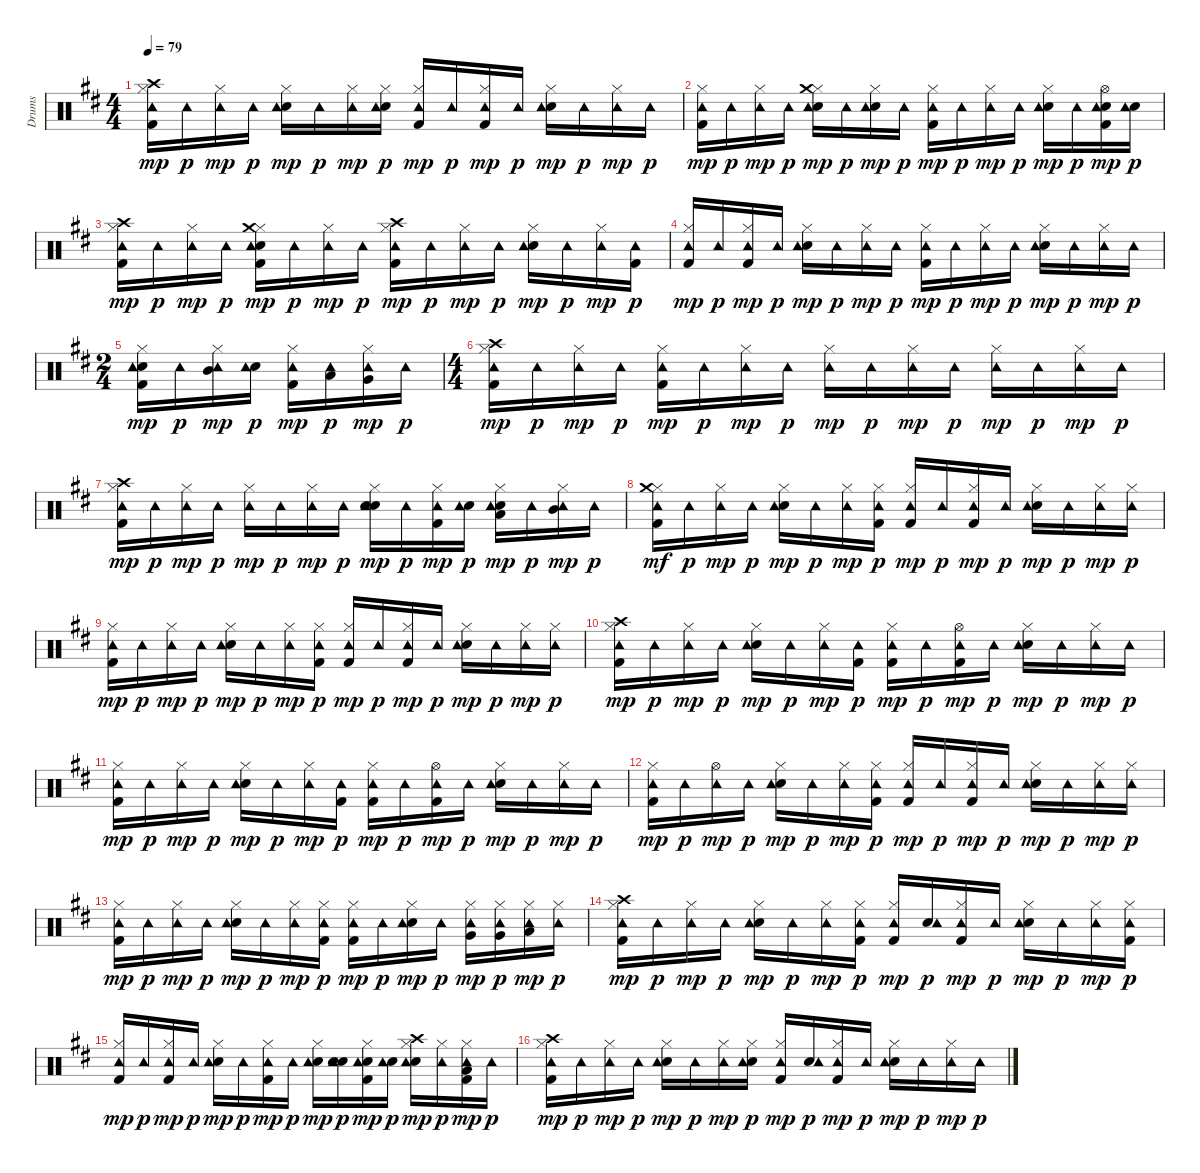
\track ("Drums" "Drums") {instrument percussion}
\staff {score}
\articulation defaults
\ts (4 4)
\tempo 79
\clef neutral
\ks d
("Kick (hit) 2" "Hi-Hat (closed)" "Crash high (hit)" "Tambourine (hit)").16{dy mp} "Tambourine (hit)".16{dy p} ("Hi-Hat (closed)" "Tambourine (hit)").16{dy mp} "Tambourine (hit)".16{dy p} ("Electric Snare (hit)" "Hi-Hat (closed)" "Tambourine (hit)").16{dy mp} "Tambourine (hit)".16{dy p} ("Hi-Hat (closed)" "Tambourine (hit)").16{dy mp} ("Electric Snare (hit)" "Hi-Hat (closed)" "Tambourine (hit)").16{dy p} ("Kick (hit) 2" "Hi-Hat (closed)" "Tambourine (hit)").16{dy mp} "Tambourine (hit)".16{dy p} ("Kick (hit) 2" "Hi-Hat (closed)" "Tambourine (hit)").16{dy mp} "Tambourine (hit)".16{dy p} ("Electric Snare (hit)" "Hi-Hat (closed)" "Tambourine (hit)").16{dy mp} "Tambourine (hit)".16{dy p} ("Hi-Hat (closed)" "Tambourine (hit)").16{dy mp} "Tambourine (hit)".16{dy p} |
("Kick (hit) 2" "Hi-Hat (closed)" "Tambourine (hit)").16{dy mp} "Tambourine (hit)".16{dy p} ("Hi-Hat (closed)" "Tambourine (hit)").16{dy mp} "Tambourine (hit)".16{dy p} ("Electric Snare (hit)" "Hi-Hat (closed)" "Tambourine (hit)" "Crash medium (hit)").16{dy mp} "Tambourine (hit)".16{dy p} ("Electric Snare (hit)" "Hi-Hat (closed)" "Tambourine (hit)").16{dy mp} "Tambourine (hit)".16{dy p} ("Kick (hit) 2" "Hi-Hat (closed)" "Tambourine (hit)").16{dy mp} "Tambourine (hit)".16{dy p} ("Hi-Hat (closed)" "Tambourine (hit)").16{dy mp} "Tambourine (hit)".16{dy p} ("Electric Snare (hit)" "Hi-Hat (closed)" "Tambourine (hit)").16{dy mp} "Tambourine (hit)".16{dy p} ("Kick (hit) 2" "Electric Snare (hit)" "Hi-Hat (open)" "Tambourine (hit)").16{dy mp} ("Electric Snare (hit)" "Tambourine (hit)").16{dy p} |
("Kick (hit) 2" "Hi-Hat (closed)" "Crash high (hit)" "Tambourine (hit)").16{dy mp} "Tambourine (hit)".16{dy p} ("Hi-Hat (closed)" "Tambourine (hit)").16{dy mp} "Tambourine (hit)".16{dy p} ("Kick (hit) 2" "Electric Snare (hit)" "Hi-Hat (closed)" "Tambourine (hit)" "Crash medium (hit)").16{dy mp} "Tambourine (hit)".16{dy p} ("Hi-Hat (closed)" "Tambourine (hit)").16{dy mp} "Tambourine (hit)".16{dy p} ("Kick (hit) 2" "Hi-Hat (closed)" "Crash high (hit)" "Tambourine (hit)").16{dy mp} "Tambourine (hit)".16{dy p} ("Hi-Hat (closed)" "Tambourine (hit)").16{dy mp} "Tambourine (hit)".16{dy p} ("Electric Snare (hit)" "Hi-Hat (closed)" "Tambourine (hit)").16{dy mp} "Tambourine (hit)".16{dy p} ("Hi-Hat (closed)" "Tambourine (hit)").16{dy mp} ("Kick (hit) 2" "Tambourine (hit)").16{dy p} |
("Kick (hit) 2" "Hi-Hat (closed)" "Tambourine (hit)").16{dy mp} "Tambourine (hit)".16{dy p} ("Kick (hit) 2" "Hi-Hat (closed)" "Tambourine (hit)").16{dy mp} "Tambourine (hit)".16{dy p} ("Electric Snare (hit)" "Hi-Hat (closed)" "Tambourine (hit)").16{dy mp} "Tambourine (hit)".16{dy p} ("Hi-Hat (closed)" "Tambourine (hit)").16{dy mp} "Tambourine (hit)".16{dy p} ("Kick (hit) 2" "Hi-Hat (closed)" "Tambourine (hit)").16{dy mp} "Tambourine (hit)".16{dy p} ("Hi-Hat (closed)" "Tambourine (hit)").16{dy mp} "Tambourine (hit)".16{dy p} ("Electric Snare (hit)" "Hi-Hat (closed)" "Tambourine (hit)").16{dy mp} "Tambourine (hit)".16{dy p} ("Hi-Hat (closed)" "Tambourine (hit)").16{dy mp} "Tambourine (hit)".16{dy p} |
\ts (2 4)
("Kick (hit) 2" "Electric Snare (hit)" "Hi-Hat (closed)" "Tambourine (hit)").16{dy mp} "Tambourine (hit)".16{dy p} ("Hi-Hat (closed)" "Mid Tom (hit)" "Tambourine (hit)").16{dy mp} ("Electric Snare (hit)" "Tambourine (hit)").16{dy p} ("Kick (hit) 2" "Hi-Hat (closed)" "Tambourine (hit)").16{dy mp} ("Low Tom (hit)" "Tambourine (hit)").16{dy p} ("Hi-Hat (closed)" "Very Low Tom (hit)" "Tambourine (hit)").16{dy mp} "Tambourine (hit)".16{dy p} |
\ts (4 4)
("Kick (hit) 2" "Hi-Hat (closed)" "Crash high (hit)" "Tambourine (hit)").16{dy mp} "Tambourine (hit)".16{dy p} ("Hi-Hat (closed)" "Tambourine (hit)").16{dy mp} "Tambourine (hit)".16{dy p} ("Kick (hit) 2" "Hi-Hat (closed)" "Tambourine (hit)").16{dy mp} "Tambourine (hit)".16{dy p} ("Hi-Hat (closed)" "Tambourine (hit)").16{dy mp} "Tambourine (hit)".16{dy p} ("Hi-Hat (closed)" "Tambourine (hit)").16{dy mp} "Tambourine (hit)".16{dy p} ("Hi-Hat (closed)" "Tambourine (hit)").16{dy mp} "Tambourine (hit)".16{dy p} ("Hi-Hat (closed)" "Tambourine (hit)").16{dy mp} "Tambourine (hit)".16{dy p} ("Hi-Hat (closed)" "Tambourine (hit)").16{dy mp} "Tambourine (hit)".16{dy p} |
("Kick (hit) 2" "Hi-Hat (closed)" "Crash high (hit)" "Tambourine (hit)").16{dy mp} "Tambourine (hit)".16{dy p} ("Hi-Hat (closed)" "Tambourine (hit)").16{dy mp} "Tambourine (hit)".16{dy p} ("Hi-Hat (closed)" "Tambourine (hit)").16{dy mp} "Tambourine (hit)".16{dy p} ("Hi-Hat (closed)" "Tambourine (hit)").16{dy mp} "Tambourine (hit)".16{dy p} ("Electric Snare (hit)" "Electric Snare (hit)" "Hi-Hat (closed)" "Tambourine (hit)").16{dy mp} "Tambourine (hit)".16{dy p} ("Kick (hit) 2" "Hi-Hat (closed)" "Tambourine (hit)").16{dy mp} ("Electric Snare (hit)" "Tambourine (hit)").16{dy p} ("Electric Snare (hit)" "Low Floor Tom (hit)" "Hi-Hat (closed)" "Tambourine (hit)").16{dy mp} "Tambourine (hit)".16{dy p} ("Hi-Hat (closed)" "Mid Tom (hit)" "Tambourine (hit)").16{dy mp} "Tambourine (hit)".16{dy p} |
("Kick (hit) 2" "Hi-Hat (closed)" "Tambourine (hit)" "Crash medium (hit)").16{dy mf} "Tambourine (hit)".16{dy p} ("Hi-Hat (closed)" "Tambourine (hit)").16{dy mp} "Tambourine (hit)".16{dy p} ("Electric Snare (hit)" "Hi-Hat (closed)" "Tambourine (hit)").16{dy mp} "Tambourine (hit)".16{dy p} ("Hi-Hat (closed)" "Tambourine (hit)").16{dy mp} ("Kick (hit) 2" "Hi-Hat (closed)" "Tambourine (hit)").16{dy p} ("Kick (hit) 2" "Hi-Hat (closed)" "Tambourine (hit)").16{dy mp} "Tambourine (hit)".16{dy p} ("Kick (hit) 2" "Hi-Hat (closed)" "Tambourine (hit)").16{dy mp} "Tambourine (hit)".16{dy p} ("Electric Snare (hit)" "Hi-Hat (closed)" "Tambourine (hit)").16{dy mp} "Tambourine (hit)".16{dy p} ("Hi-Hat (closed)" "Tambourine (hit)").16{dy mp} ("Hi-Hat (closed)" "Tambourine (hit)").16{dy p} |
("Kick (hit) 2" "Hi-Hat (closed)" "Tambourine (hit)").16{dy mp} "Tambourine (hit)".16{dy p} ("Hi-Hat (closed)" "Tambourine (hit)").16{dy mp} "Tambourine (hit)".16{dy p} ("Electric Snare (hit)" "Hi-Hat (closed)" "Tambourine (hit)").16{dy mp} "Tambourine (hit)".16{dy p} ("Hi-Hat (closed)" "Tambourine (hit)").16{dy mp} ("Kick (hit) 2" "Hi-Hat (closed)" "Tambourine (hit)").16{dy p} ("Kick (hit) 2" "Hi-Hat (closed)" "Tambourine (hit)").16{dy mp} "Tambourine (hit)".16{dy p} ("Kick (hit) 2" "Hi-Hat (closed)" "Tambourine (hit)").16{dy mp} "Tambourine (hit)".16{dy p} ("Electric Snare (hit)" "Hi-Hat (closed)" "Tambourine (hit)").16{dy mp} "Tambourine (hit)".16{dy p} ("Hi-Hat (closed)" "Tambourine (hit)").16{dy mp} ("Hi-Hat (closed)" "Tambourine (hit)").16{dy p} |
("Kick (hit) 2" "Hi-Hat (closed)" "Crash high (hit)" "Tambourine (hit)").16{dy mp} "Tambourine (hit)".16{dy p} ("Hi-Hat (closed)" "Tambourine (hit)").16{dy mp} "Tambourine (hit)".16{dy p} ("Electric Snare (hit)" "Hi-Hat (closed)" "Tambourine (hit)").16{dy mp} "Tambourine (hit)".16{dy p} ("Hi-Hat (closed)" "Tambourine (hit)").16{dy mp} ("Kick (hit) 2" "Tambourine (hit)").16{dy p} ("Kick (hit) 2" "Hi-Hat (closed)" "Tambourine (hit)").16{dy mp} "Tambourine (hit)".16{dy p} ("Kick (hit) 2" "Hi-Hat (open)" "Tambourine (hit)").16{dy mp} "Tambourine (hit)".16{dy p} ("Electric Snare (hit)" "Hi-Hat (closed)" "Tambourine (hit)").16{dy mp} "Tambourine (hit)".16{dy p} ("Hi-Hat (closed)" "Tambourine (hit)").16{dy mp} "Tambourine (hit)".16{dy p} |
("Kick (hit) 2" "Hi-Hat (closed)" "Tambourine (hit)").16{dy mp} "Tambourine (hit)".16{dy p} ("Hi-Hat (closed)" "Tambourine (hit)").16{dy mp} "Tambourine (hit)".16{dy p} ("Electric Snare (hit)" "Hi-Hat (closed)" "Tambourine (hit)").16{dy mp} "Tambourine (hit)".16{dy p} ("Hi-Hat (closed)" "Tambourine (hit)").16{dy mp} ("Kick (hit) 2" "Tambourine (hit)").16{dy p} ("Kick (hit) 2" "Hi-Hat (closed)" "Tambourine (hit)").16{dy mp} "Tambourine (hit)".16{dy p} ("Kick (hit) 2" "Hi-Hat (open)" "Tambourine (hit)").16{dy mp} "Tambourine (hit)".16{dy p} ("Electric Snare (hit)" "Hi-Hat (closed)" "Tambourine (hit)").16{dy mp} "Tambourine (hit)".16{dy p} ("Hi-Hat (closed)" "Tambourine (hit)").16{dy mp} "Tambourine (hit)".16{dy p} |
("Kick (hit) 2" "Hi-Hat (closed)" "Tambourine (hit)").16{dy mp} "Tambourine (hit)".16{dy p} ("Hi-Hat (open)" "Tambourine (hit)").16{dy mp} "Tambourine (hit)".16{dy p} ("Electric Snare (hit)" "Hi-Hat (closed)" "Tambourine (hit)").16{dy mp} "Tambourine (hit)".16{dy p} ("Hi-Hat (closed)" "Tambourine (hit)").16{dy mp} ("Kick (hit) 2" "Hi-Hat (closed)" "Tambourine (hit)").16{dy p} ("Kick (hit) 2" "Hi-Hat (closed)" "Tambourine (hit)").16{dy mp} "Tambourine (hit)".16{dy p} ("Kick (hit) 2" "Hi-Hat (closed)" "Tambourine (hit)").16{dy mp} "Tambourine (hit)".16{dy p} ("Electric Snare (hit)" "Hi-Hat (closed)" "Tambourine (hit)").16{dy mp} "Tambourine (hit)".16{dy p} ("Hi-Hat (closed)" "Tambourine (hit)").16{dy mp} ("Hi-Hat (closed)" "Tambourine (hit)").16{dy p} |
("Kick (hit) 2" "Hi-Hat (closed)" "Tambourine (hit)").16{dy mp} "Tambourine (hit)".16{dy p} ("Hi-Hat (closed)" "Tambourine (hit)").16{dy mp} "Tambourine (hit)".16{dy p} ("Electric Snare (hit)" "Hi-Hat (closed)" "Tambourine (hit)").16{dy mp} "Tambourine (hit)".16{dy p} ("Hi-Hat (closed)" "Tambourine (hit)").16{dy mp} ("Kick (hit) 2" "Hi-Hat (closed)" "Tambourine (hit)").16{dy p} ("Kick (hit) 2" "Hi-Hat (closed)" "Tambourine (hit)").16{dy mp} "Tambourine (hit)".16{dy p} ("Electric Snare (hit)" "Hi-Hat (closed)" "Tambourine (hit)").16{dy mp} "Tambourine (hit)".16{dy p} ("Hi-Hat (closed)" "Very Low Tom (hit)" "Tambourine (hit)").16{dy mp} ("Hi-Hat (closed)" "Very Low Tom (hit)" "Tambourine (hit)").16{dy p} ("Low Floor Tom (hit)" "Hi-Hat (closed)" "Tambourine (hit)").16{dy mp} ("Hi-Hat (closed)" "Tambourine (hit)").16{dy p} |
("Kick (hit) 2" "Hi-Hat (closed)" "Crash high (hit)" "Tambourine (hit)").16{dy mp} "Tambourine (hit)".16{dy p} ("Hi-Hat (closed)" "Tambourine (hit)").16{dy mp} "Tambourine (hit)".16{dy p} ("Electric Snare (hit)" "Hi-Hat (closed)" "Tambourine (hit)").16{dy mp} "Tambourine (hit)".16{dy p} ("Hi-Hat (closed)" "Tambourine (hit)").16{dy mp} ("Kick (hit) 2" "Hi-Hat (closed)" "Tambourine (hit)").16{dy p} ("Kick (hit) 2" "Hi-Hat (closed)" "Tambourine (hit)").16{dy mp} ("Electric Snare (hit)" "Tambourine (hit)").16{dy p} ("Kick (hit) 2" "Hi-Hat (closed)" "Tambourine (hit)").16{dy mp} "Tambourine (hit)".16{dy p} ("Electric Snare (hit)" "Hi-Hat (closed)" "Tambourine (hit)").16{dy mp} "Tambourine (hit)".16{dy p} ("Hi-Hat (closed)" "Tambourine (hit)").16{dy mp} ("Kick (hit) 2" "Hi-Hat (closed)" "Tambourine (hit)").16{dy p} |
("Kick (hit) 2" "Hi-Hat (closed)" "Tambourine (hit)").16{dy mp} "Tambourine (hit)".16{dy p} ("Kick (hit) 2" "Hi-Hat (closed)" "Tambourine (hit)").16{dy mp} "Tambourine (hit)".16{dy p} ("Electric Snare (hit)" "Hi-Hat (closed)" "Tambourine (hit)").16{dy mp} "Tambourine (hit)".16{dy p} ("Kick (hit) 2" "Hi-Hat (closed)" "Tambourine (hit)").16{dy mp} "Tambourine (hit)".16{dy p} ("Electric Snare (hit)" "Hi-Hat (closed)" "Tambourine (hit)").16{dy mp} ("Electric Snare (hit)" "Electric Snare (hit)" "Tambourine (hit)").16{dy p} ("Kick (hit) 2" "Electric Snare (hit)" "Hi-Hat (closed)" "Tambourine (hit)").16{dy mp} ("Electric Snare (hit)" "Tambourine (hit)").16{dy p} ("Electric Snare (hit)" "Hi-Hat (closed)" "Crash high (hit)" "Tambourine (hit)").16{dy mp} ("Hi-Hat (closed)" "Tambourine (hit)").16{dy p} ("Kick (hit) 2" "Low Floor Tom (hit)" "Hi-Hat (closed)" "Tambourine (hit)").16{dy mp} "Tambourine (hit)".16{dy p} |
("Kick (hit) 2" "Hi-Hat (closed)" "Crash high (hit)" "Tambourine (hit)").16{dy mp} "Tambourine (hit)".16{dy p} ("Hi-Hat (closed)" "Tambourine (hit)").16{dy mp} "Tambourine (hit)".16{dy p} ("Electric Snare (hit)" "Hi-Hat (closed)" "Tambourine (hit)").16{dy mp} "Tambourine (hit)".16{dy p} ("Hi-Hat (closed)" "Tambourine (hit)").16{dy mp} ("Electric Snare (hit)" "Hi-Hat (closed)" "Tambourine (hit)").16{dy p} ("Kick (hit) 2" "Hi-Hat (closed)" "Tambourine (hit)").16{dy mp} ("Electric Snare (hit)" "Tambourine (hit)").16{dy p} ("Kick (hit) 2" "Hi-Hat (closed)" "Tambourine (hit)").16{dy mp} "Tambourine (hit)".16{dy p} ("Electric Snare (hit)" "Hi-Hat (closed)" "Tambourine (hit)").16{dy mp} "Tambourine (hit)".16{dy p} ("Hi-Hat (closed)" "Tambourine (hit)").16{dy mp} "Tambourine (hit)".16{dy p}
